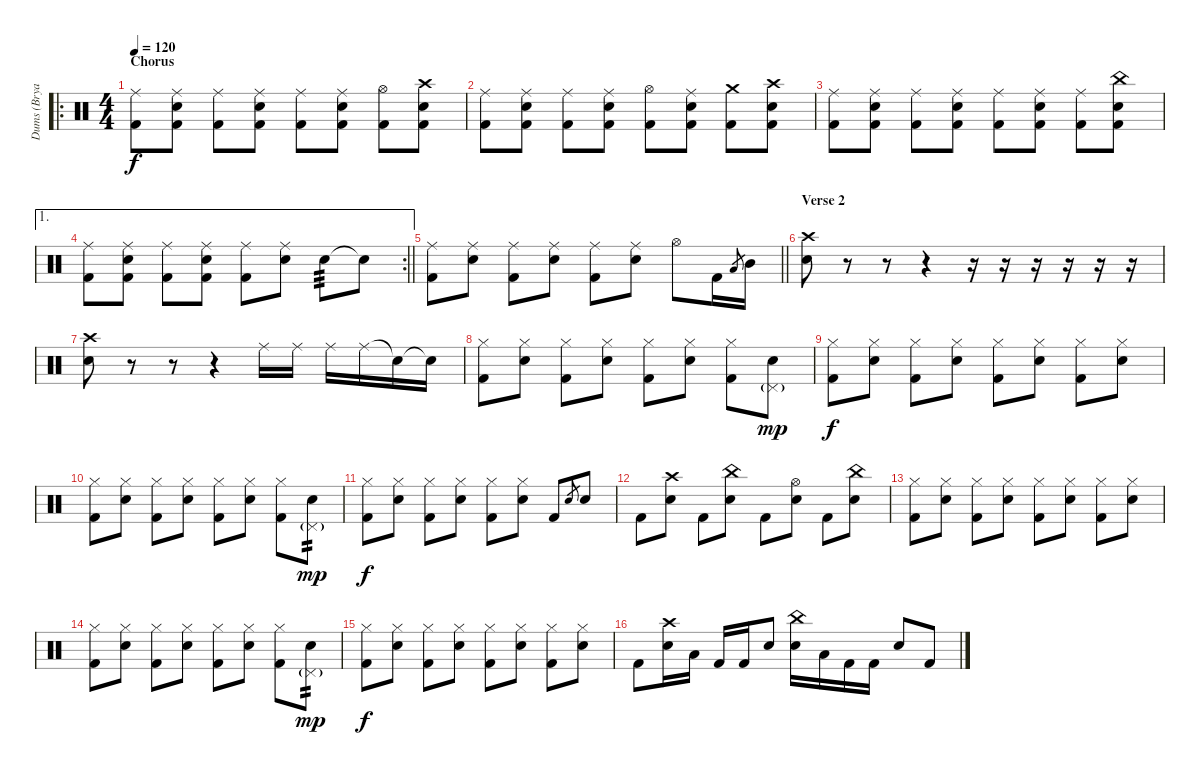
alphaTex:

\track ("Dums (Bryar)" "Dums (Brya") {instrument percussion}
\staff {score}
\articulation defaults
\ro
\ts (4 4)
\section ("" "Chorus")
\tempo 120
\clef neutral
\ks c
("Ride (middle)" "Kick (hit) 2").8{dy f} ("Ride (middle)" "Electric Snare (hit)" "Kick (hit) 2").8 ("Ride (middle)" "Kick (hit) 2").8 ("Ride (middle)" "Electric Snare (hit)" "Kick (hit) 2").8 ("Ride (middle)" "Kick (hit) 2").8 ("Ride (middle)" "Electric Snare (hit)" "Kick (hit) 2").8 ("Hi-Hat (open)" "Kick (hit) 2").8 ("Crash high (hit)" "Electric Snare (hit)" "Kick (hit) 2").8 |
("Ride (middle)" "Kick (hit) 2").8 ("Ride (middle)" "Electric Snare (hit)" "Kick (hit) 2").8 ("Ride (middle)" "Kick (hit) 2").8 ("Ride (middle)" "Electric Snare (hit)" "Kick (hit) 2").8 ("Hi-Hat (open)" "Kick (hit) 2").8 ("Ride (middle)" "Electric Snare (hit)" "Kick (hit) 2").8 ("Crash medium (hit)" "Kick (hit) 2").8 ("Crash high (hit)" "Electric Snare (hit)" "Kick (hit) 2").8 |
("Ride (middle)" "Kick (hit) 2").8 ("Ride (middle)" "Electric Snare (hit)" "Kick (hit) 2").8 ("Ride (middle)" "Kick (hit) 2").8 ("Ride (middle)" "Electric Snare (hit)" "Kick (hit) 2").8 ("Ride (middle)" "Kick (hit) 2").8 ("Ride (middle)" "Electric Snare (hit)" "Kick (hit) 2").8 ("Ride (middle)" "Kick (hit) 2").8 ("China (hit)" "Electric Snare (hit)" "Kick (hit) 2").8 |
\ae 1
\rc 2
\barLineRight lightlight
("Ride (middle)" "Kick (hit) 2").8 ("Ride (middle)" "Electric Snare (hit)" "Kick (hit) 2").8 ("Ride (middle)" "Kick (hit) 2").8 ("Ride (middle)" "Electric Snare (hit)" "Kick (hit) 2").8 ("Ride (middle)" "Kick (hit) 2").8 ("Ride (middle)" "Electric Snare (hit)").8 "Electric Snare (hit)".8{tp 3} "Electric Snare (hit)"{t}.8 |
\barLineRight lightlight
("Ride (middle)" "Kick (hit) 2").8 ("Ride (middle)" "Electric Snare (hit)").8 ("Ride (middle)" "Kick (hit) 2").8 ("Ride (middle)" "Electric Snare (hit)").8 ("Ride (middle)" "Kick (hit) 2").8 ("Ride (middle)" "Electric Snare (hit)").8 "Hi-Hat (open)".8 "Kick (hit) 2".16 "Low Tom (hit)".8{gr} "Mid Tom (hit)".16 |
\section ("" "Verse 2")
("Crash high (hit)" "Electric Snare (hit)").8 r.8 r.8 r.4 r.16 r.16 r.16 r.16 r.16 r.16 |
("Crash high (hit)" "Electric Snare (hit)").8 r.8 r.8 r.4 "Ride (middle)".16 "Ride (middle)".16 "Ride (middle)".16 "Ride (middle)".16 "Snare (hit)"{t}.16 "Snare (hit)"{t}.16 |
("Hi-Hat (closed)" "Kick (hit) 2").8 ("Hi-Hat (closed)" "Electric Snare (hit)").8 ("Hi-Hat (closed)" "Kick (hit) 2").8 ("Hi-Hat (closed)" "Electric Snare (hit)").8 ("Hi-Hat (closed)" "Kick (hit) 2").8 ("Hi-Hat (closed)" "Electric Snare (hit)").8 ("Hi-Hat (closed)" "Kick (hit) 2").8 ("Pedal Hi-Hat (hit)"{g} "Electric Snare (hit)").8{dy mp} |
("Hi-Hat (closed)" "Kick (hit) 2").8{dy f} ("Hi-Hat (closed)" "Electric Snare (hit)").8 ("Hi-Hat (closed)" "Kick (hit) 2").8 ("Hi-Hat (closed)" "Electric Snare (hit)").8 ("Hi-Hat (closed)" "Kick (hit) 2").8 ("Hi-Hat (closed)" "Electric Snare (hit)").8 ("Hi-Hat (closed)" "Kick (hit) 2").8 ("Hi-Hat (closed)" "Electric Snare (hit)").8 |
("Hi-Hat (closed)" "Kick (hit) 2").8 ("Hi-Hat (closed)" "Electric Snare (hit)").8 ("Hi-Hat (closed)" "Kick (hit) 2").8 ("Hi-Hat (closed)" "Electric Snare (hit)").8 ("Hi-Hat (closed)" "Kick (hit) 2").8 ("Hi-Hat (closed)" "Electric Snare (hit)").8 ("Hi-Hat (closed)" "Kick (hit) 2").8 ("Pedal Hi-Hat (hit)"{g} "Electric Snare (hit)").8{tp 2 dy mp} |
("Hi-Hat (closed)" "Kick (hit) 2").8{dy f} ("Hi-Hat (closed)" "Electric Snare (hit)").8 ("Hi-Hat (closed)" "Kick (hit) 2").8 ("Hi-Hat (closed)" "Electric Snare (hit)").8 ("Hi-Hat (closed)" "Kick (hit) 2").8 ("Hi-Hat (closed)" "Electric Snare (hit)").8 "Kick (hit) 2".8 "Electric Snare (hit)".8{gr} "Electric Snare (hit)".8 |
"Kick (hit) 2".8 ("Crash high (hit)" "Electric Snare (hit)").8 "Kick (hit) 2".8 ("China (hit)" "Electric Snare (hit)").8 "Kick (hit) 2".8 ("Hi-Hat (open)" "Electric Snare (hit)").8 "Kick (hit) 2".8 ("China (hit)" "Electric Snare (hit)").8 |
("Hi-Hat (closed)" "Kick (hit) 2").8 ("Hi-Hat (closed)" "Electric Snare (hit)").8 ("Hi-Hat (closed)" "Kick (hit) 2").8 ("Hi-Hat (closed)" "Electric Snare (hit)").8 ("Hi-Hat (closed)" "Kick (hit) 2").8 ("Hi-Hat (closed)" "Electric Snare (hit)").8 ("Hi-Hat (closed)" "Kick (hit) 2").8 ("Hi-Hat (closed)" "Electric Snare (hit)").8 |
("Hi-Hat (closed)" "Kick (hit) 2").8 ("Hi-Hat (closed)" "Electric Snare (hit)").8 ("Hi-Hat (closed)" "Kick (hit) 2").8 ("Hi-Hat (closed)" "Electric Snare (hit)").8 ("Hi-Hat (closed)" "Kick (hit) 2").8 ("Hi-Hat (closed)" "Electric Snare (hit)").8 ("Hi-Hat (closed)" "Kick (hit) 2").8 ("Pedal Hi-Hat (hit)"{g} "Electric Snare (hit)").8{tp 2 dy mp} |
("Hi-Hat (closed)" "Kick (hit) 2").8{dy f} ("Hi-Hat (closed)" "Electric Snare (hit)").8 ("Hi-Hat (closed)" "Kick (hit) 2").8 ("Hi-Hat (closed)" "Electric Snare (hit)").8 ("Hi-Hat (closed)" "Kick (hit) 2").8 ("Hi-Hat (closed)" "Electric Snare (hit)").8 ("Hi-Hat (closed)" "Kick (hit) 2").8 ("Hi-Hat (closed)" "Electric Snare (hit)").8 |
"Kick (hit) 2".8 ("Crash high (hit)" "Electric Snare (hit)").16 "Low Tom (hit)".16 "Kick (hit) 2".16 "Kick (hit) 2".16 "Electric Snare (hit)".8 ("China (hit)" "Electric Snare (hit)").16 "Low Tom (hit)".16 "Kick (hit) 2".16 "Kick (hit) 2".16 "Electric Snare (hit)".8 "Kick (hit) 2".8
